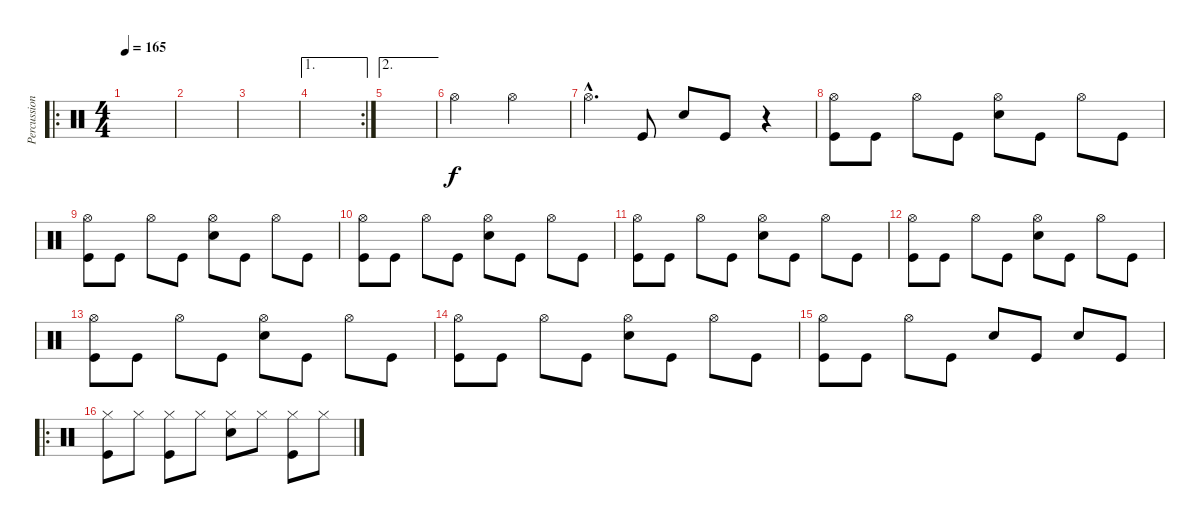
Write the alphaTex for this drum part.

\track ("Percussion" "Percussion") {instrument percussion}
\staff {score}
\articulation defaults
\ro
\ts (4 4)
\tempo 165
\clef neutral
\ks c
|
|
|
\ae 1
\rc 2
|
\ae 2
|
"Hi-Hat (open)".2 "Hi-Hat (open)".2 |
"Hi-Hat (open)"{hac}.4{d} "Kick (hit)".8 "Electric Snare (hit)".8 "Kick (hit)".8 r.4 |
("Hi-Hat (open)" "Kick (hit)").8 "Kick (hit)".8 "Hi-Hat (open)".8 "Kick (hit)".8 ("Hi-Hat (open)" "Electric Snare (hit)").8 "Kick (hit)".8 "Hi-Hat (open)".8 "Kick (hit)".8 |
("Hi-Hat (open)" "Kick (hit)").8 "Kick (hit)".8 "Hi-Hat (open)".8 "Kick (hit)".8 ("Hi-Hat (open)" "Electric Snare (hit)").8 "Kick (hit)".8 "Hi-Hat (open)".8 "Kick (hit)".8 |
("Hi-Hat (open)" "Kick (hit)").8 "Kick (hit)".8 "Hi-Hat (open)".8 "Kick (hit)".8 ("Hi-Hat (open)" "Electric Snare (hit)").8 "Kick (hit)".8 "Hi-Hat (open)".8 "Kick (hit)".8 |
("Hi-Hat (open)" "Kick (hit)").8 "Kick (hit)".8 "Hi-Hat (open)".8 "Kick (hit)".8 ("Hi-Hat (open)" "Electric Snare (hit)").8 "Kick (hit)".8 "Hi-Hat (open)".8 "Kick (hit)".8 |
("Hi-Hat (open)" "Kick (hit)").8 "Kick (hit)".8 "Hi-Hat (open)".8 "Kick (hit)".8 ("Hi-Hat (open)" "Electric Snare (hit)").8 "Kick (hit)".8 "Hi-Hat (open)".8 "Kick (hit)".8 |
("Hi-Hat (open)" "Kick (hit)").8 "Kick (hit)".8 "Hi-Hat (open)".8 "Kick (hit)".8 ("Hi-Hat (open)" "Electric Snare (hit)").8 "Kick (hit)".8 "Hi-Hat (open)".8 "Kick (hit)".8 |
("Hi-Hat (open)" "Kick (hit)").8 "Kick (hit)".8 "Hi-Hat (open)".8 "Kick (hit)".8 ("Hi-Hat (open)" "Electric Snare (hit)").8 "Kick (hit)".8 "Hi-Hat (open)".8 "Kick (hit)".8 |
("Hi-Hat (open)" "Kick (hit)").8 "Kick (hit)".8 "Hi-Hat (open)".8 "Kick (hit)".8 "Electric Snare (hit)".8 "Kick (hit)".8 "Electric Snare (hit)".8 "Kick (hit)".8 |
\ro
("Hi-Hat (closed)" "Kick (hit)").8 "Hi-Hat (closed)".8 ("Hi-Hat (closed)" "Kick (hit)").8 "Hi-Hat (closed)".8 ("Hi-Hat (closed)" "Electric Snare (hit)").8 "Hi-Hat (closed)".8 ("Hi-Hat (closed)" "Kick (hit)").8 "Hi-Hat (closed)".8
